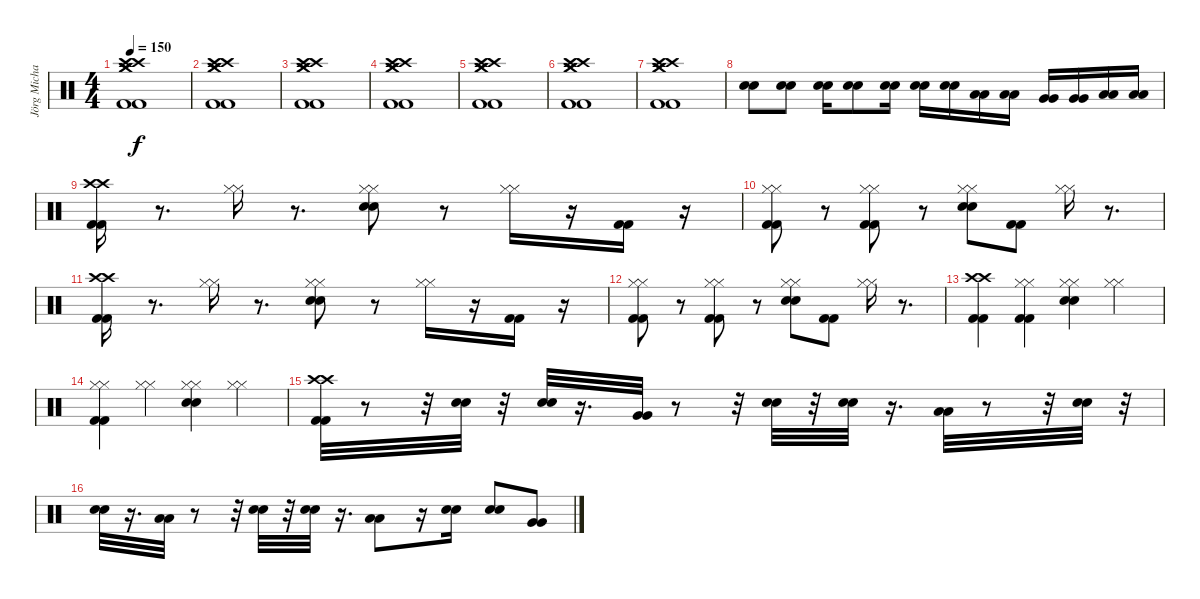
\track ("Jörg Michael" "Jörg Micha") {instrument percussion}
\staff {score}
\articulation defaults
\ts (4 4)
\tempo 150
\clef neutral
\ks c
("Kick (hit) 2" "Crash high (hit)" "Crash medium (hit)" "Kick (hit) 2" "Crash high (hit)" "Crash medium (hit)").1{dy f} |
("Crash high (hit)" "Kick (hit) 2" "Crash medium (hit)" "Crash high (hit)" "Kick (hit) 2" "Crash medium (hit)").1 |
("Kick (hit) 2" "Crash high (hit)" "Crash medium (hit)" "Kick (hit) 2" "Crash high (hit)" "Crash medium (hit)").1 |
("Kick (hit) 2" "Crash high (hit)" "Crash medium (hit)" "Kick (hit) 2" "Crash high (hit)" "Crash medium (hit)").1 |
("Crash high (hit)" "Crash medium (hit)" "Kick (hit) 2" "Crash high (hit)" "Crash medium (hit)" "Kick (hit) 2").1 |
("Crash high (hit)" "Crash medium (hit)" "Kick (hit) 2" "Crash high (hit)" "Crash medium (hit)" "Kick (hit) 2").1 |
("Crash high (hit)" "Kick (hit) 2" "Crash medium (hit)" "Crash high (hit)" "Kick (hit) 2" "Crash medium (hit)").1 |
("Snare (hit) 2" "Snare (hit) 2").8 ("Snare (hit) 2" "Snare (hit) 2").8 ("Snare (hit) 2" "Snare (hit) 2").16 ("Snare (hit) 2" "Snare (hit) 2").8 ("Snare (hit) 2" "Snare (hit) 2").16 ("Snare (hit) 2" "Snare (hit) 2").16 ("Snare (hit) 2" "Snare (hit) 2").16 ("Low Tom (hit)" "Low Tom (hit)").16 ("Low Tom (hit)" "Low Tom (hit)").16 ("Very Low Tom (hit)" "Very Low Tom (hit)").16 ("Very Low Tom (hit)" "Very Low Tom (hit)").16 ("Low Floor Tom (hit)" "Low Floor Tom (hit)").16 ("Low Floor Tom (hit)" "Low Floor Tom (hit)").16 |
("Kick (hit) 2" "Crash high (hit)" "Kick (hit) 2" "Crash high (hit)").16 r.8{d} ("Hi-Hat (closed)" "Hi-Hat (closed)").16 r.8{d} ("Snare (hit) 2" "Hi-Hat (closed)" "Snare (hit) 2" "Hi-Hat (closed)").8 r.8 ("Hi-Hat (closed)" "Hi-Hat (closed)").16 r.16 ("Kick (hit) 2" "Kick (hit) 2").16 r.16 |
("Hi-Hat (closed)" "Kick (hit) 2" "Hi-Hat (closed)" "Kick (hit) 2").8 r.8 ("Kick (hit) 2" "Hi-Hat (closed)" "Kick (hit) 2" "Hi-Hat (closed)").8 r.8 ("Snare (hit) 2" "Hi-Hat (closed)" "Snare (hit) 2" "Hi-Hat (closed)").8 ("Kick (hit) 2" "Kick (hit) 2").8 ("Hi-Hat (closed)" "Hi-Hat (closed)").16 r.8{d} |
("Kick (hit) 2" "Crash high (hit)" "Kick (hit) 2" "Crash high (hit)").16 r.8{d} ("Hi-Hat (closed)" "Hi-Hat (closed)").16 r.8{d} ("Snare (hit) 2" "Hi-Hat (closed)" "Snare (hit) 2" "Hi-Hat (closed)").8 r.8 ("Hi-Hat (closed)" "Hi-Hat (closed)").16 r.16 ("Kick (hit) 2" "Kick (hit) 2").16 r.16 |
("Hi-Hat (closed)" "Kick (hit) 2" "Hi-Hat (closed)" "Kick (hit) 2").8 r.8 ("Kick (hit) 2" "Hi-Hat (closed)" "Kick (hit) 2" "Hi-Hat (closed)").8 r.8 ("Snare (hit) 2" "Hi-Hat (closed)" "Snare (hit) 2" "Hi-Hat (closed)").8 ("Kick (hit) 2" "Kick (hit) 2").8 ("Hi-Hat (closed)" "Hi-Hat (closed)").16 r.8{d} |
("Crash high (hit)" "Kick (hit) 2" "Crash high (hit)" "Kick (hit) 2").4 ("Kick (hit) 2" "Hi-Hat (closed)" "Kick (hit) 2" "Hi-Hat (closed)").4 ("Hi-Hat (closed)" "Snare (hit) 2" "Hi-Hat (closed)" "Snare (hit) 2").4 ("Hi-Hat (closed)" "Hi-Hat (closed)").4 |
("Hi-Hat (closed)" "Kick (hit) 2" "Hi-Hat (closed)" "Kick (hit) 2").4 ("Hi-Hat (closed)" "Hi-Hat (closed)").4 ("Hi-Hat (closed)" "Snare (hit) 2" "Hi-Hat (closed)" "Snare (hit) 2").4 ("Hi-Hat (closed)" "Hi-Hat (closed)").4 |
("Crash high (hit)" "Kick (hit) 2" "Crash high (hit)" "Kick (hit) 2").32 r.8 r.32 ("Snare (hit) 2" "Snare (hit) 2").32 r.32 ("Snare (hit) 2" "Snare (hit) 2").32 r.16{d} ("Very Low Tom (hit)" "Very Low Tom (hit)").32 r.8 r.32 ("Snare (hit) 2" "Snare (hit) 2").32 r.32 ("Snare (hit) 2" "Snare (hit) 2").32 r.16{d} ("Low Tom (hit)" "Low Tom (hit)").32 r.8 r.32 ("Snare (hit) 2" "Snare (hit) 2").32 r.32 |
("Snare (hit) 2" "Snare (hit) 2").32 r.16{d} ("Low Floor Tom (hit)" "Low Floor Tom (hit)").32 r.8 r.32 ("Snare (hit) 2" "Snare (hit) 2").32 r.32 ("Snare (hit) 2" "Snare (hit) 2").32 r.16{d} ("Low Floor Tom (hit)" "Low Floor Tom (hit)").8 r.16 ("Snare (hit) 2" "Snare (hit) 2").16 ("Snare (hit) 2" "Snare (hit) 2").8 ("Very Low Tom (hit)" "Very Low Tom (hit)").8
